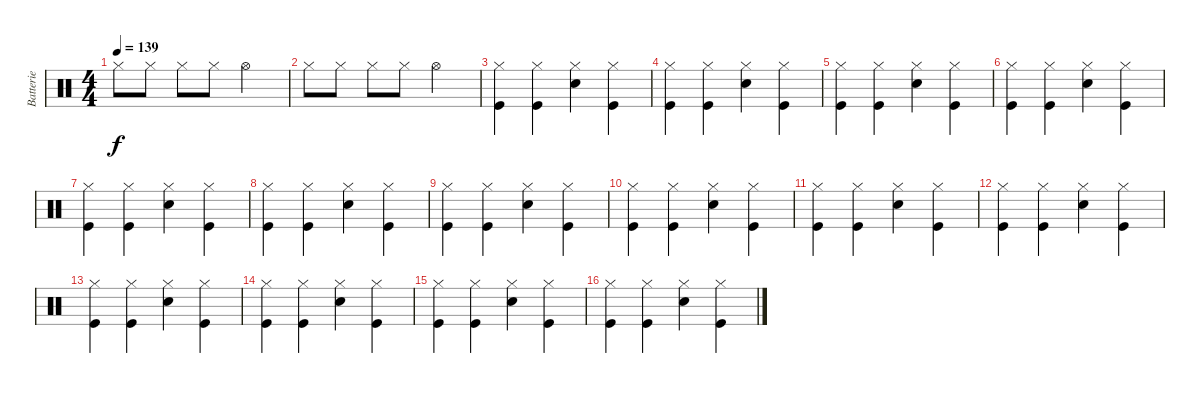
\track ("Batterie" "Batterie") {instrument percussion}
\staff {score}
\articulation defaults
\ts (4 4)
\tempo 139
\clef neutral
\ks c "Hi-Hat (closed)".8{dy f} "Hi-Hat (closed)".8 "Hi-Hat (closed)".8 "Hi-Hat (closed)".8 "Hi-Hat (open)".2
|
"Hi-Hat (closed)".8 "Hi-Hat (closed)".8 "Hi-Hat (closed)".8 "Hi-Hat (closed)".8 "Hi-Hat (open)".2 |
("Hi-Hat (closed)" "Kick (hit)").4 ("Hi-Hat (closed)" "Kick (hit)").4 ("Hi-Hat (closed)" "Snare (hit) 2").4 ("Hi-Hat (closed)" "Kick (hit)").4 |
("Hi-Hat (closed)" "Kick (hit)").4 ("Hi-Hat (closed)" "Kick (hit)").4 ("Hi-Hat (closed)" "Snare (hit) 2").4 ("Hi-Hat (closed)" "Kick (hit)").4 |
("Hi-Hat (closed)" "Kick (hit)").4 ("Hi-Hat (closed)" "Kick (hit)").4 ("Hi-Hat (closed)" "Snare (hit) 2").4 ("Hi-Hat (closed)" "Kick (hit)").4 |
("Hi-Hat (closed)" "Kick (hit)").4 ("Hi-Hat (closed)" "Kick (hit)").4 ("Hi-Hat (closed)" "Snare (hit) 2").4 ("Hi-Hat (closed)" "Kick (hit)").4 |
("Hi-Hat (closed)" "Kick (hit)").4 ("Hi-Hat (closed)" "Kick (hit)").4 ("Hi-Hat (closed)" "Snare (hit) 2").4 ("Hi-Hat (closed)" "Kick (hit)").4 |
("Hi-Hat (closed)" "Kick (hit)").4 ("Hi-Hat (closed)" "Kick (hit)").4 ("Hi-Hat (closed)" "Snare (hit) 2").4 ("Hi-Hat (closed)" "Kick (hit)").4 |
("Hi-Hat (closed)" "Kick (hit)").4 ("Hi-Hat (closed)" "Kick (hit)").4 ("Hi-Hat (closed)" "Snare (hit) 2").4 ("Hi-Hat (closed)" "Kick (hit)").4 |
("Hi-Hat (closed)" "Kick (hit)").4 ("Hi-Hat (closed)" "Kick (hit)").4 ("Hi-Hat (closed)" "Snare (hit) 2").4 ("Hi-Hat (closed)" "Kick (hit)").4 |
("Hi-Hat (closed)" "Kick (hit)").4 ("Hi-Hat (closed)" "Kick (hit)").4 ("Hi-Hat (closed)" "Snare (hit) 2").4 ("Hi-Hat (closed)" "Kick (hit)").4 |
("Hi-Hat (closed)" "Kick (hit)").4 ("Hi-Hat (closed)" "Kick (hit)").4 ("Hi-Hat (closed)" "Snare (hit) 2").4 ("Hi-Hat (closed)" "Kick (hit)").4 |
("Hi-Hat (closed)" "Kick (hit)").4 ("Hi-Hat (closed)" "Kick (hit)").4 ("Hi-Hat (closed)" "Snare (hit) 2").4 ("Hi-Hat (closed)" "Kick (hit)").4 |
("Hi-Hat (closed)" "Kick (hit)").4 ("Hi-Hat (closed)" "Kick (hit)").4 ("Hi-Hat (closed)" "Snare (hit) 2").4 ("Hi-Hat (closed)" "Kick (hit)").4 |
("Hi-Hat (closed)" "Kick (hit)").4 ("Hi-Hat (closed)" "Kick (hit)").4 ("Hi-Hat (closed)" "Snare (hit) 2").4 ("Hi-Hat (closed)" "Kick (hit)").4 |
("Hi-Hat (closed)" "Kick (hit)").4 ("Hi-Hat (closed)" "Kick (hit)").4 ("Hi-Hat (closed)" "Snare (hit) 2").4 ("Hi-Hat (closed)" "Kick (hit)").4
